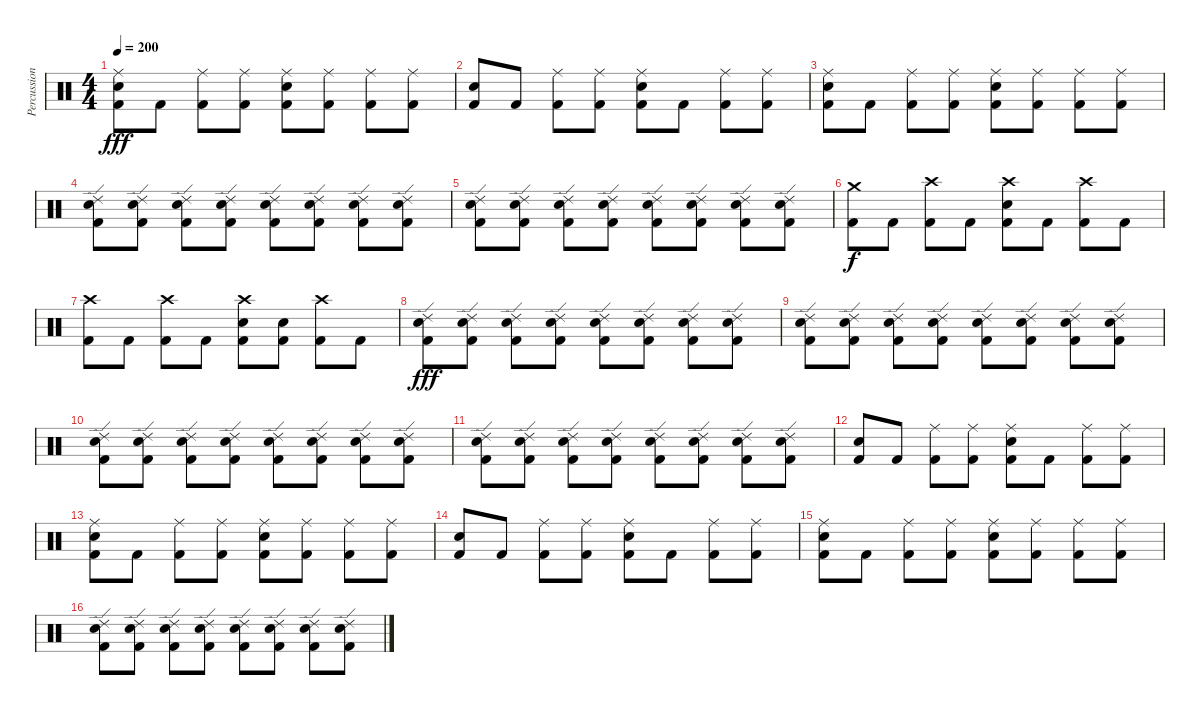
\track ("Percussion" "Percussion") {instrument percussion}
\staff {score}
\articulation defaults
\ts (4 4)
\tempo 200
\clef neutral
\ks c
("Ride (middle)" "Electric Snare (hit)" "Kick (hit) 2").8{dy fff} "Kick (hit) 2".8 ("Ride (middle)" "Kick (hit) 2").8 ("Ride (middle)" "Kick (hit) 2").8 ("Ride (middle)" "Electric Snare (hit)" "Kick (hit) 2").8 ("Ride (middle)" "Kick (hit) 2").8 ("Ride (middle)" "Kick (hit) 2").8 ("Ride (middle)" "Kick (hit) 2").8 |
("Electric Snare (hit)" "Kick (hit) 2").8 "Kick (hit) 2".8 ("Ride (middle)" "Kick (hit) 2").8 ("Ride (middle)" "Kick (hit) 2").8 ("Ride (middle)" "Electric Snare (hit)" "Kick (hit) 2").8 "Kick (hit) 2".8 ("Ride (middle)" "Kick (hit) 2").8 ("Ride (middle)" "Kick (hit) 2").8 |
("Ride (middle)" "Electric Snare (hit)" "Kick (hit) 2").8 "Kick (hit) 2".8 ("Ride (middle)" "Kick (hit) 2").8 ("Ride (middle)" "Kick (hit) 2").8 ("Ride (middle)" "Electric Snare (hit)" "Kick (hit) 2").8 ("Ride (middle)" "Kick (hit) 2").8 ("Ride (middle)" "Kick (hit) 2").8 ("Ride (middle)" "Kick (hit) 2").8 |
("Ride (edge) 2" "Electric Snare (hit)" "Kick (hit) 2").8 ("Ride (edge) 2" "Electric Snare (hit)" "Kick (hit) 2").8 ("Ride (edge) 2" "Electric Snare (hit)" "Kick (hit) 2").8 ("Ride (edge) 2" "Electric Snare (hit)" "Kick (hit) 2").8 ("Ride (edge) 2" "Electric Snare (hit)" "Kick (hit) 2").8 ("Ride (edge) 2" "Electric Snare (hit)" "Kick (hit) 2").8 ("Ride (edge) 2" "Electric Snare (hit)" "Kick (hit) 2").8 ("Ride (edge) 2" "Electric Snare (hit)" "Kick (hit) 2").8 |
("Ride (edge) 2" "Electric Snare (hit)" "Kick (hit) 2").8 ("Ride (edge) 2" "Electric Snare (hit)" "Kick (hit) 2").8 ("Ride (edge) 2" "Electric Snare (hit)" "Kick (hit) 2").8 ("Ride (edge) 2" "Electric Snare (hit)" "Kick (hit) 2").8 ("Ride (edge) 2" "Electric Snare (hit)" "Kick (hit) 2").8 ("Ride (edge) 2" "Electric Snare (hit)" "Kick (hit) 2").8 ("Ride (edge) 2" "Electric Snare (hit)" "Kick (hit) 2").8 ("Ride (edge) 2" "Electric Snare (hit)" "Kick (hit) 2").8 |
("Crash medium (hit)" "Kick (hit) 2").8{dy f} "Kick (hit) 2".8 ("Crash high (hit)" "Kick (hit) 2").8 "Kick (hit) 2".8 ("Crash high (hit)" "Electric Snare (hit)" "Kick (hit) 2").8 "Kick (hit) 2".8 ("Crash high (hit)" "Kick (hit) 2").8 "Kick (hit) 2".8 |
("Crash high (hit)" "Kick (hit) 2").8 "Kick (hit) 2".8 ("Crash high (hit)" "Kick (hit) 2").8 "Kick (hit) 2".8 ("Crash high (hit)" "Electric Snare (hit)" "Kick (hit) 2").8 ("Electric Snare (hit)" "Kick (hit) 2").8 ("Crash high (hit)" "Kick (hit) 2").8 "Kick (hit) 2".8 |
("Ride (edge) 2" "Electric Snare (hit)" "Kick (hit) 2").8{dy fff} ("Ride (edge) 2" "Electric Snare (hit)" "Kick (hit) 2").8 ("Ride (edge) 2" "Electric Snare (hit)" "Kick (hit) 2").8 ("Ride (edge) 2" "Electric Snare (hit)" "Kick (hit) 2").8 ("Ride (edge) 2" "Electric Snare (hit)" "Kick (hit) 2").8 ("Ride (edge) 2" "Electric Snare (hit)" "Kick (hit) 2").8 ("Ride (edge) 2" "Electric Snare (hit)" "Kick (hit) 2").8 ("Ride (edge) 2" "Electric Snare (hit)" "Kick (hit) 2").8 |
("Ride (edge) 2" "Electric Snare (hit)" "Kick (hit) 2").8 ("Ride (edge) 2" "Electric Snare (hit)" "Kick (hit) 2").8 ("Ride (edge) 2" "Electric Snare (hit)" "Kick (hit) 2").8 ("Ride (edge) 2" "Electric Snare (hit)" "Kick (hit) 2").8 ("Ride (edge) 2" "Electric Snare (hit)" "Kick (hit) 2").8 ("Ride (edge) 2" "Electric Snare (hit)" "Kick (hit) 2").8 ("Ride (edge) 2" "Electric Snare (hit)" "Kick (hit) 2").8 ("Ride (edge) 2" "Electric Snare (hit)" "Kick (hit) 2").8 |
("Ride (edge) 2" "Electric Snare (hit)" "Kick (hit) 2").8 ("Ride (edge) 2" "Electric Snare (hit)" "Kick (hit) 2").8 ("Ride (edge) 2" "Electric Snare (hit)" "Kick (hit) 2").8 ("Ride (edge) 2" "Electric Snare (hit)" "Kick (hit) 2").8 ("Ride (edge) 2" "Electric Snare (hit)" "Kick (hit) 2").8 ("Ride (edge) 2" "Electric Snare (hit)" "Kick (hit) 2").8 ("Ride (edge) 2" "Electric Snare (hit)" "Kick (hit) 2").8 ("Ride (edge) 2" "Electric Snare (hit)" "Kick (hit) 2").8 |
("Ride (edge) 2" "Electric Snare (hit)" "Kick (hit) 2").8 ("Ride (edge) 2" "Electric Snare (hit)" "Kick (hit) 2").8 ("Ride (edge) 2" "Electric Snare (hit)" "Kick (hit) 2").8 ("Ride (edge) 2" "Electric Snare (hit)" "Kick (hit) 2").8 ("Ride (edge) 2" "Electric Snare (hit)" "Kick (hit) 2").8 ("Ride (edge) 2" "Electric Snare (hit)" "Kick (hit) 2").8 ("Ride (edge) 2" "Electric Snare (hit)" "Kick (hit) 2").8 ("Ride (edge) 2" "Electric Snare (hit)" "Kick (hit) 2").8 |
("Electric Snare (hit)" "Kick (hit) 2").8 "Kick (hit) 2".8 ("Ride (middle)" "Kick (hit) 2").8 ("Ride (middle)" "Kick (hit) 2").8 ("Ride (middle)" "Electric Snare (hit)" "Kick (hit) 2").8 "Kick (hit) 2".8 ("Ride (middle)" "Kick (hit) 2").8 ("Ride (middle)" "Kick (hit) 2").8 |
("Ride (middle)" "Electric Snare (hit)" "Kick (hit) 2").8 "Kick (hit) 2".8 ("Ride (middle)" "Kick (hit) 2").8 ("Ride (middle)" "Kick (hit) 2").8 ("Ride (middle)" "Electric Snare (hit)" "Kick (hit) 2").8 ("Ride (middle)" "Kick (hit) 2").8 ("Ride (middle)" "Kick (hit) 2").8 ("Ride (middle)" "Kick (hit) 2").8 |
("Electric Snare (hit)" "Kick (hit) 2").8 "Kick (hit) 2".8 ("Ride (middle)" "Kick (hit) 2").8 ("Ride (middle)" "Kick (hit) 2").8 ("Ride (middle)" "Electric Snare (hit)" "Kick (hit) 2").8 "Kick (hit) 2".8 ("Ride (middle)" "Kick (hit) 2").8 ("Ride (middle)" "Kick (hit) 2").8 |
("Ride (middle)" "Electric Snare (hit)" "Kick (hit) 2").8 "Kick (hit) 2".8 ("Ride (middle)" "Kick (hit) 2").8 ("Ride (middle)" "Kick (hit) 2").8 ("Ride (middle)" "Electric Snare (hit)" "Kick (hit) 2").8 ("Ride (middle)" "Kick (hit) 2").8 ("Ride (middle)" "Kick (hit) 2").8 ("Ride (middle)" "Kick (hit) 2").8 |
("Ride (edge) 2" "Electric Snare (hit)" "Kick (hit) 2").8 ("Ride (edge) 2" "Electric Snare (hit)" "Kick (hit) 2").8 ("Ride (edge) 2" "Electric Snare (hit)" "Kick (hit) 2").8 ("Ride (edge) 2" "Electric Snare (hit)" "Kick (hit) 2").8 ("Ride (edge) 2" "Electric Snare (hit)" "Kick (hit) 2").8 ("Ride (edge) 2" "Electric Snare (hit)" "Kick (hit) 2").8 ("Ride (edge) 2" "Electric Snare (hit)" "Kick (hit) 2").8 ("Ride (edge) 2" "Electric Snare (hit)" "Kick (hit) 2").8
